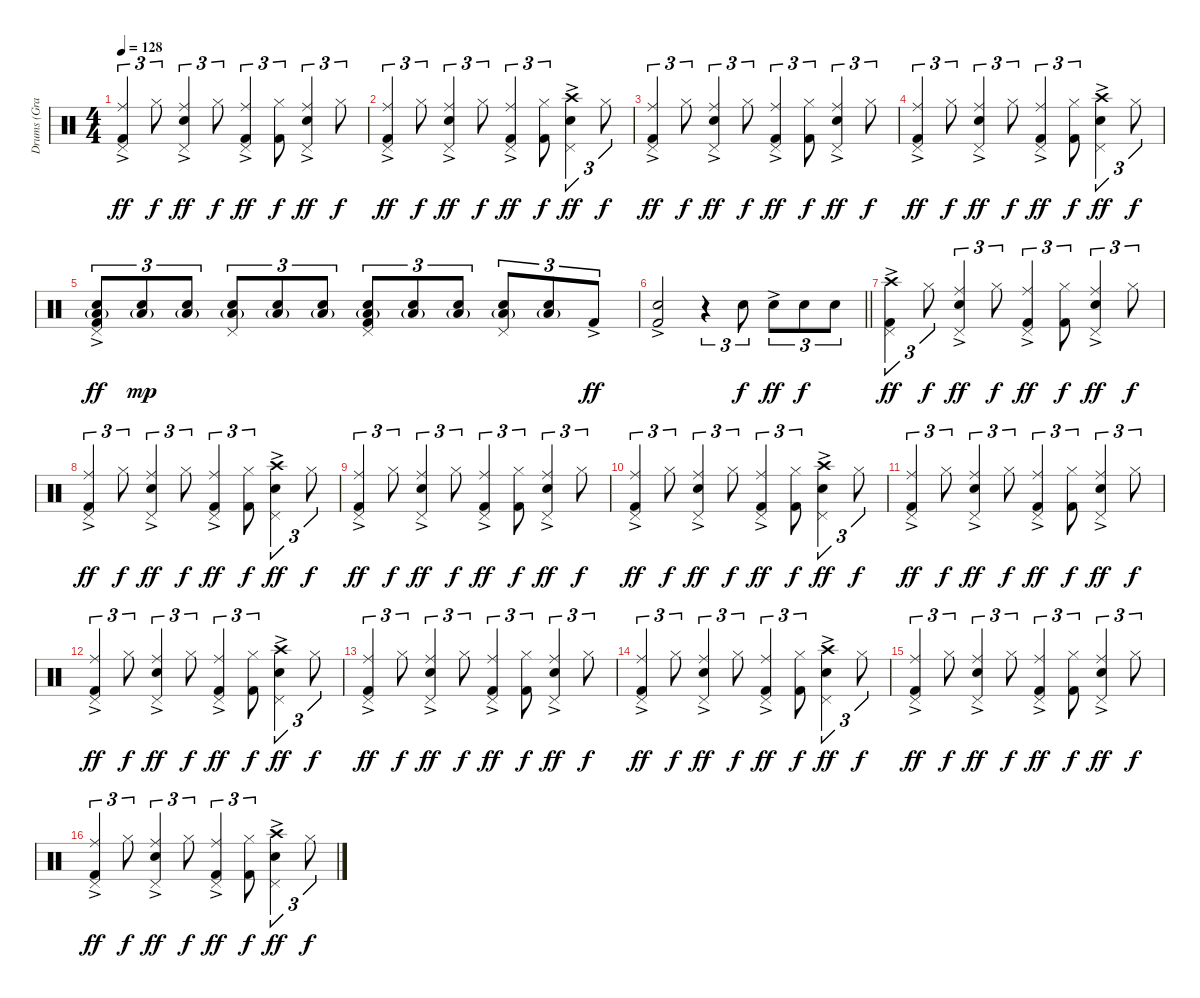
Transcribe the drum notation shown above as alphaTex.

\track ("Drums (Graham)" "Drums (Gra") {instrument percussion}
\staff {score}
\articulation defaults
\ts (4 4)
\tempo 128
\clef neutral
\ks c
("Pedal Hi-Hat (hit)" "Ride (middle)" "Kick (hit) 2"{ac}).4{tu (3 2) dy ff} "Hi-Hat (closed)".8{tu (3 2) dy f} ("Pedal Hi-Hat (hit)" "Ride (middle)" "Snare (hit) 2"{ac}).4{tu (3 2) dy ff} "Hi-Hat (closed)".8{tu (3 2) dy f} ("Pedal Hi-Hat (hit)" "Ride (middle)" "Kick (hit) 2"{ac}).4{tu (3 2) dy ff} ("Hi-Hat (closed)" "Kick (hit) 2").8{tu (3 2) dy f} ("Pedal Hi-Hat (hit)" "Ride (middle)" "Snare (hit) 2"{ac}).4{tu (3 2) dy ff} "Hi-Hat (closed)".8{tu (3 2) dy f} |
("Pedal Hi-Hat (hit)" "Ride (middle)" "Kick (hit) 2"{ac}).4{tu (3 2) dy ff} "Hi-Hat (closed)".8{tu (3 2) dy f} ("Pedal Hi-Hat (hit)" "Ride (middle)" "Snare (hit) 2"{ac}).4{tu (3 2) dy ff} "Hi-Hat (closed)".8{tu (3 2) dy f} ("Pedal Hi-Hat (hit)" "Ride (middle)" "Kick (hit) 2"{ac}).4{tu (3 2) dy ff} ("Hi-Hat (closed)" "Kick (hit) 2").8{tu (3 2) dy f} ("Pedal Hi-Hat (hit)" "Crash high (hit)" "Snare (hit) 2"{ac}).4{tu (3 2) dy ff} "Hi-Hat (closed)".8{tu (3 2) dy f} |
("Pedal Hi-Hat (hit)" "Ride (middle)" "Kick (hit) 2"{ac}).4{tu (3 2) dy ff} "Hi-Hat (closed)".8{tu (3 2) dy f} ("Pedal Hi-Hat (hit)" "Ride (middle)" "Snare (hit) 2"{ac}).4{tu (3 2) dy ff} "Hi-Hat (closed)".8{tu (3 2) dy f} ("Pedal Hi-Hat (hit)" "Ride (middle)" "Kick (hit) 2"{ac}).4{tu (3 2) dy ff} ("Hi-Hat (closed)" "Kick (hit) 2").8{tu (3 2) dy f} ("Pedal Hi-Hat (hit)" "Ride (middle)" "Snare (hit) 2"{ac}).4{tu (3 2) dy ff} "Hi-Hat (closed)".8{tu (3 2) dy f} |
("Pedal Hi-Hat (hit)" "Ride (middle)" "Kick (hit) 2"{ac}).4{tu (3 2) dy ff} "Hi-Hat (closed)".8{tu (3 2) dy f} ("Pedal Hi-Hat (hit)" "Ride (middle)" "Snare (hit) 2"{ac}).4{tu (3 2) dy ff} "Hi-Hat (closed)".8{tu (3 2) dy f} ("Pedal Hi-Hat (hit)" "Ride (middle)" "Kick (hit) 2"{ac}).4{tu (3 2) dy ff} ("Hi-Hat (closed)" "Kick (hit) 2").8{tu (3 2) dy f} ("Pedal Hi-Hat (hit)" "Crash high (hit)" "Snare (hit) 2"{ac}).4{tu (3 2) dy ff} "Hi-Hat (closed)".8{tu (3 2) dy f} |
("Pedal Hi-Hat (hit)" "Snare (hit) 2" "Low Floor Tom (hit)"{g} "Kick (hit) 2"{ac}).8{tu (3 2) dy ff} ("Snare (hit) 2" "Low Floor Tom (hit)"{g}).8{tu (3 2) dy mp} ("Snare (hit) 2" "Low Floor Tom (hit)"{g}).8{tu (3 2)} ("Pedal Hi-Hat (hit)" "Snare (hit) 2" "Low Floor Tom (hit)"{g}).8{tu (3 2)} ("Snare (hit) 2" "Low Floor Tom (hit)"{g}).8{tu (3 2)} ("Snare (hit) 2" "Low Floor Tom (hit)"{g}).8{tu (3 2)} ("Pedal Hi-Hat (hit)" "Snare (hit) 2" "Low Floor Tom (hit)"{g} "Kick (hit) 2").8{tu (3 2)} ("Snare (hit) 2" "Low Floor Tom (hit)"{g}).8{tu (3 2)} ("Snare (hit) 2" "Low Floor Tom (hit)"{g}).8{tu (3 2)} ("Pedal Hi-Hat (hit)" "Snare (hit) 2" "Low Floor Tom (hit)"{g}).8{tu (3 2)} ("Snare (hit) 2" "Low Floor Tom (hit)"{g}).8{tu (3 2)} "Kick (hit) 2"{ac}.8{tu (3 2) dy ff} |
\barLineRight lightlight
("Snare (hit) 2"{ac} "Kick (hit) 2"{ac}).2 r.4{tu (3 2)} "Snare (hit) 2".8{tu (3 2) dy f} "Snare (hit) 2"{ac}.8{tu (3 2) dy ff} "Snare (hit) 2".8{tu (3 2) dy f} "Snare (hit) 2".8{tu (3 2)} |
("Pedal Hi-Hat (hit)" "Crash high (hit)" "Kick (hit) 2"{ac}).4{tu (3 2) dy ff} "Hi-Hat (closed)".8{tu (3 2) dy f} ("Pedal Hi-Hat (hit)" "Ride (middle)" "Snare (hit) 2"{ac}).4{tu (3 2) dy ff} "Hi-Hat (closed)".8{tu (3 2) dy f} ("Pedal Hi-Hat (hit)" "Ride (middle)" "Kick (hit) 2"{ac}).4{tu (3 2) dy ff} ("Hi-Hat (closed)" "Kick (hit) 2").8{tu (3 2) dy f} ("Pedal Hi-Hat (hit)" "Ride (middle)" "Snare (hit) 2"{ac}).4{tu (3 2) dy ff} "Hi-Hat (closed)".8{tu (3 2) dy f} |
("Pedal Hi-Hat (hit)" "Ride (middle)" "Kick (hit) 2"{ac}).4{tu (3 2) dy ff} "Hi-Hat (closed)".8{tu (3 2) dy f} ("Pedal Hi-Hat (hit)" "Ride (middle)" "Snare (hit) 2"{ac}).4{tu (3 2) dy ff} "Hi-Hat (closed)".8{tu (3 2) dy f} ("Pedal Hi-Hat (hit)" "Ride (middle)" "Kick (hit) 2"{ac}).4{tu (3 2) dy ff} ("Hi-Hat (closed)" "Kick (hit) 2").8{tu (3 2) dy f} ("Pedal Hi-Hat (hit)" "Crash high (hit)" "Snare (hit) 2"{ac}).4{tu (3 2) dy ff} "Hi-Hat (closed)".8{tu (3 2) dy f} |
("Pedal Hi-Hat (hit)" "Ride (middle)" "Kick (hit) 2"{ac}).4{tu (3 2) dy ff} "Hi-Hat (closed)".8{tu (3 2) dy f} ("Pedal Hi-Hat (hit)" "Ride (middle)" "Snare (hit) 2"{ac}).4{tu (3 2) dy ff} "Hi-Hat (closed)".8{tu (3 2) dy f} ("Pedal Hi-Hat (hit)" "Ride (middle)" "Kick (hit) 2"{ac}).4{tu (3 2) dy ff} ("Hi-Hat (closed)" "Kick (hit) 2").8{tu (3 2) dy f} ("Pedal Hi-Hat (hit)" "Ride (middle)" "Snare (hit) 2"{ac}).4{tu (3 2) dy ff} "Hi-Hat (closed)".8{tu (3 2) dy f} |
("Pedal Hi-Hat (hit)" "Ride (middle)" "Kick (hit) 2"{ac}).4{tu (3 2) dy ff} "Hi-Hat (closed)".8{tu (3 2) dy f} ("Pedal Hi-Hat (hit)" "Ride (middle)" "Snare (hit) 2"{ac}).4{tu (3 2) dy ff} "Hi-Hat (closed)".8{tu (3 2) dy f} ("Pedal Hi-Hat (hit)" "Ride (middle)" "Kick (hit) 2"{ac}).4{tu (3 2) dy ff} ("Hi-Hat (closed)" "Kick (hit) 2").8{tu (3 2) dy f} ("Pedal Hi-Hat (hit)" "Crash high (hit)" "Snare (hit) 2"{ac}).4{tu (3 2) dy ff} "Hi-Hat (closed)".8{tu (3 2) dy f} |
("Pedal Hi-Hat (hit)" "Ride (middle)" "Kick (hit) 2"{ac}).4{tu (3 2) dy ff} "Hi-Hat (closed)".8{tu (3 2) dy f} ("Pedal Hi-Hat (hit)" "Ride (middle)" "Snare (hit) 2"{ac}).4{tu (3 2) dy ff} "Hi-Hat (closed)".8{tu (3 2) dy f} ("Pedal Hi-Hat (hit)" "Ride (middle)" "Kick (hit) 2"{ac}).4{tu (3 2) dy ff} ("Hi-Hat (closed)" "Kick (hit) 2").8{tu (3 2) dy f} ("Pedal Hi-Hat (hit)" "Ride (middle)" "Snare (hit) 2"{ac}).4{tu (3 2) dy ff} "Hi-Hat (closed)".8{tu (3 2) dy f} |
("Pedal Hi-Hat (hit)" "Ride (middle)" "Kick (hit) 2"{ac}).4{tu (3 2) dy ff} "Hi-Hat (closed)".8{tu (3 2) dy f} ("Pedal Hi-Hat (hit)" "Ride (middle)" "Snare (hit) 2"{ac}).4{tu (3 2) dy ff} "Hi-Hat (closed)".8{tu (3 2) dy f} ("Pedal Hi-Hat (hit)" "Ride (middle)" "Kick (hit) 2"{ac}).4{tu (3 2) dy ff} ("Hi-Hat (closed)" "Kick (hit) 2").8{tu (3 2) dy f} ("Pedal Hi-Hat (hit)" "Crash high (hit)" "Snare (hit) 2"{ac}).4{tu (3 2) dy ff} "Hi-Hat (closed)".8{tu (3 2) dy f} |
("Pedal Hi-Hat (hit)" "Ride (middle)" "Kick (hit) 2"{ac}).4{tu (3 2) dy ff} "Hi-Hat (closed)".8{tu (3 2) dy f} ("Pedal Hi-Hat (hit)" "Ride (middle)" "Snare (hit) 2"{ac}).4{tu (3 2) dy ff} "Hi-Hat (closed)".8{tu (3 2) dy f} ("Pedal Hi-Hat (hit)" "Ride (middle)" "Kick (hit) 2"{ac}).4{tu (3 2) dy ff} ("Hi-Hat (closed)" "Kick (hit) 2").8{tu (3 2) dy f} ("Pedal Hi-Hat (hit)" "Ride (middle)" "Snare (hit) 2"{ac}).4{tu (3 2) dy ff} "Hi-Hat (closed)".8{tu (3 2) dy f} |
("Pedal Hi-Hat (hit)" "Ride (middle)" "Kick (hit) 2"{ac}).4{tu (3 2) dy ff} "Hi-Hat (closed)".8{tu (3 2) dy f} ("Pedal Hi-Hat (hit)" "Ride (middle)" "Snare (hit) 2"{ac}).4{tu (3 2) dy ff} "Hi-Hat (closed)".8{tu (3 2) dy f} ("Pedal Hi-Hat (hit)" "Ride (middle)" "Kick (hit) 2"{ac}).4{tu (3 2) dy ff} ("Hi-Hat (closed)" "Kick (hit) 2").8{tu (3 2) dy f} ("Pedal Hi-Hat (hit)" "Crash high (hit)" "Snare (hit) 2"{ac}).4{tu (3 2) dy ff} "Hi-Hat (closed)".8{tu (3 2) dy f} |
("Pedal Hi-Hat (hit)" "Ride (middle)" "Kick (hit) 2"{ac}).4{tu (3 2) dy ff} "Hi-Hat (closed)".8{tu (3 2) dy f} ("Pedal Hi-Hat (hit)" "Ride (middle)" "Snare (hit) 2"{ac}).4{tu (3 2) dy ff} "Hi-Hat (closed)".8{tu (3 2) dy f} ("Pedal Hi-Hat (hit)" "Ride (middle)" "Kick (hit) 2"{ac}).4{tu (3 2) dy ff} ("Hi-Hat (closed)" "Kick (hit) 2").8{tu (3 2) dy f} ("Pedal Hi-Hat (hit)" "Ride (middle)" "Snare (hit) 2"{ac}).4{tu (3 2) dy ff} "Hi-Hat (closed)".8{tu (3 2) dy f} |
("Pedal Hi-Hat (hit)" "Ride (middle)" "Kick (hit) 2"{ac}).4{tu (3 2) dy ff} "Hi-Hat (closed)".8{tu (3 2) dy f} ("Pedal Hi-Hat (hit)" "Ride (middle)" "Snare (hit) 2"{ac}).4{tu (3 2) dy ff} "Hi-Hat (closed)".8{tu (3 2) dy f} ("Pedal Hi-Hat (hit)" "Ride (middle)" "Kick (hit) 2"{ac}).4{tu (3 2) dy ff} ("Hi-Hat (closed)" "Kick (hit) 2").8{tu (3 2) dy f} ("Pedal Hi-Hat (hit)" "Crash high (hit)" "Snare (hit) 2"{ac}).4{tu (3 2) dy ff} "Hi-Hat (closed)".8{tu (3 2) dy f}
